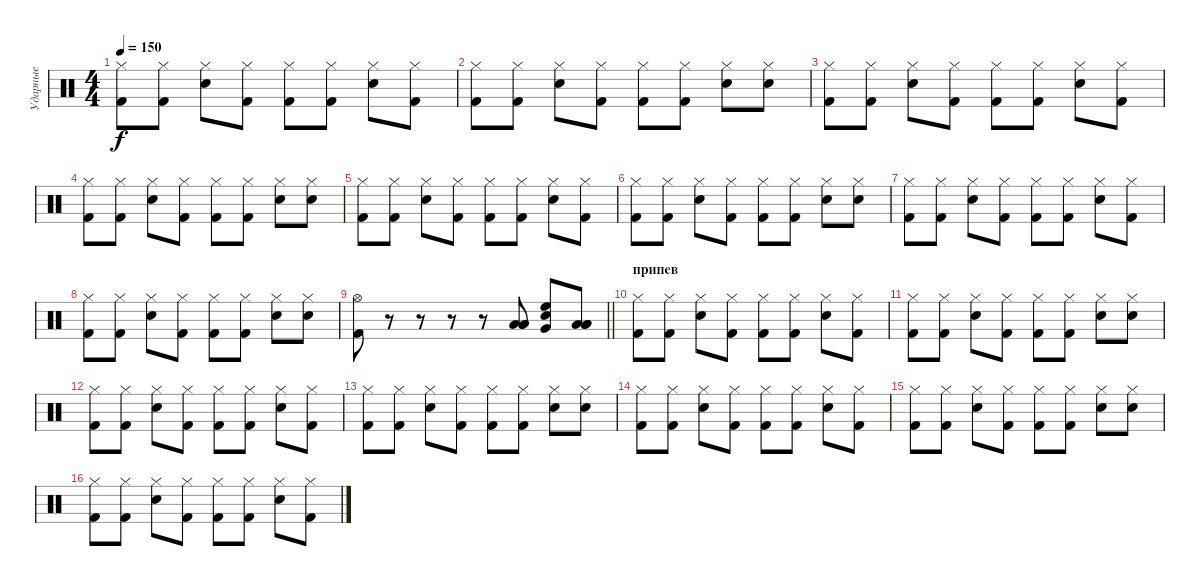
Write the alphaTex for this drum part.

\track ("Ударные" "Ударные") {instrument percussion}
\staff {score}
\articulation defaults
\ts (4 4)
\tempo 150
\clef neutral
\ks c
("Hi-Hat (closed)" "Kick (hit) 2").8{dy f} ("Hi-Hat (closed)" "Kick (hit) 2").8 ("Hi-Hat (closed)" "Snare (hit) 2").8 ("Hi-Hat (closed)" "Kick (hit) 2").8 ("Hi-Hat (closed)" "Kick (hit) 2").8 ("Hi-Hat (closed)" "Kick (hit) 2").8 ("Hi-Hat (closed)" "Snare (hit) 2").8 ("Hi-Hat (closed)" "Kick (hit) 2").8 |
("Hi-Hat (closed)" "Kick (hit) 2").8 ("Hi-Hat (closed)" "Kick (hit) 2").8 ("Hi-Hat (closed)" "Snare (hit) 2").8 ("Hi-Hat (closed)" "Kick (hit) 2").8 ("Hi-Hat (closed)" "Kick (hit) 2").8 ("Hi-Hat (closed)" "Kick (hit) 2").8 ("Hi-Hat (closed)" "Snare (hit) 2").8 ("Hi-Hat (closed)" "Snare (hit) 2").8 |
("Hi-Hat (closed)" "Kick (hit) 2").8 ("Hi-Hat (closed)" "Kick (hit) 2").8 ("Hi-Hat (closed)" "Snare (hit) 2").8 ("Hi-Hat (closed)" "Kick (hit) 2").8 ("Hi-Hat (closed)" "Kick (hit) 2").8 ("Hi-Hat (closed)" "Kick (hit) 2").8 ("Hi-Hat (closed)" "Snare (hit) 2").8 ("Hi-Hat (closed)" "Kick (hit) 2").8 |
("Hi-Hat (closed)" "Kick (hit) 2").8 ("Hi-Hat (closed)" "Kick (hit) 2").8 ("Hi-Hat (closed)" "Snare (hit) 2").8 ("Hi-Hat (closed)" "Kick (hit) 2").8 ("Hi-Hat (closed)" "Kick (hit) 2").8 ("Hi-Hat (closed)" "Kick (hit) 2").8 ("Hi-Hat (closed)" "Snare (hit) 2").8 ("Hi-Hat (closed)" "Snare (hit) 2").8 |
("Hi-Hat (closed)" "Kick (hit) 2").8 ("Hi-Hat (closed)" "Kick (hit) 2").8 ("Hi-Hat (closed)" "Snare (hit) 2").8 ("Hi-Hat (closed)" "Kick (hit) 2").8 ("Hi-Hat (closed)" "Kick (hit) 2").8 ("Hi-Hat (closed)" "Kick (hit) 2").8 ("Hi-Hat (closed)" "Snare (hit) 2").8 ("Hi-Hat (closed)" "Kick (hit) 2").8 |
("Hi-Hat (closed)" "Kick (hit) 2").8 ("Hi-Hat (closed)" "Kick (hit) 2").8 ("Hi-Hat (closed)" "Snare (hit) 2").8 ("Hi-Hat (closed)" "Kick (hit) 2").8 ("Hi-Hat (closed)" "Kick (hit) 2").8 ("Hi-Hat (closed)" "Kick (hit) 2").8 ("Hi-Hat (closed)" "Snare (hit) 2").8 ("Hi-Hat (closed)" "Snare (hit) 2").8 |
("Hi-Hat (closed)" "Kick (hit) 2").8 ("Hi-Hat (closed)" "Kick (hit) 2").8 ("Hi-Hat (closed)" "Snare (hit) 2").8 ("Hi-Hat (closed)" "Kick (hit) 2").8 ("Hi-Hat (closed)" "Kick (hit) 2").8 ("Hi-Hat (closed)" "Kick (hit) 2").8 ("Hi-Hat (closed)" "Snare (hit) 2").8 ("Hi-Hat (closed)" "Kick (hit) 2").8 |
("Hi-Hat (closed)" "Kick (hit) 2").8 ("Hi-Hat (closed)" "Kick (hit) 2").8 ("Hi-Hat (closed)" "Snare (hit) 2").8 ("Hi-Hat (closed)" "Kick (hit) 2").8 ("Hi-Hat (closed)" "Kick (hit) 2").8 ("Hi-Hat (closed)" "Kick (hit) 2").8 ("Hi-Hat (closed)" "Snare (hit) 2").8 ("Hi-Hat (closed)" "Snare (hit) 2").8 |
\barLineRight lightlight
("Hi-Hat (open)" "Kick (hit) 2").8 r.8 r.8 r.8 r.8 ("Low Floor Tom (hit)" "Low Floor Tom (hit)" "Low Floor Tom (hit)").8 ("Very Low Tom (hit)" "High Floor Tom (hit)" "Electric Snare (hit)").8 ("Low Tom (hit)" "Low Tom (hit)" "Low Tom (hit)").8 |
\section ("" "припев")
("Hi-Hat (closed)" "Kick (hit) 2").8 ("Hi-Hat (closed)" "Kick (hit) 2").8 ("Hi-Hat (closed)" "Snare (hit) 2").8 ("Hi-Hat (closed)" "Kick (hit) 2").8 ("Hi-Hat (closed)" "Kick (hit) 2").8 ("Hi-Hat (closed)" "Kick (hit) 2").8 ("Hi-Hat (closed)" "Snare (hit) 2").8 ("Hi-Hat (closed)" "Kick (hit) 2").8 |
("Hi-Hat (closed)" "Kick (hit) 2").8 ("Hi-Hat (closed)" "Kick (hit) 2").8 ("Hi-Hat (closed)" "Snare (hit) 2").8 ("Hi-Hat (closed)" "Kick (hit) 2").8 ("Hi-Hat (closed)" "Kick (hit) 2").8 ("Hi-Hat (closed)" "Kick (hit) 2").8 ("Hi-Hat (closed)" "Snare (hit) 2").8 ("Hi-Hat (closed)" "Snare (hit) 2").8 |
("Hi-Hat (closed)" "Kick (hit) 2").8 ("Hi-Hat (closed)" "Kick (hit) 2").8 ("Hi-Hat (closed)" "Snare (hit) 2").8 ("Hi-Hat (closed)" "Kick (hit) 2").8 ("Hi-Hat (closed)" "Kick (hit) 2").8 ("Hi-Hat (closed)" "Kick (hit) 2").8 ("Hi-Hat (closed)" "Snare (hit) 2").8 ("Hi-Hat (closed)" "Kick (hit) 2").8 |
("Hi-Hat (closed)" "Kick (hit) 2").8 ("Hi-Hat (closed)" "Kick (hit) 2").8 ("Hi-Hat (closed)" "Snare (hit) 2").8 ("Hi-Hat (closed)" "Kick (hit) 2").8 ("Hi-Hat (closed)" "Kick (hit) 2").8 ("Hi-Hat (closed)" "Kick (hit) 2").8 ("Hi-Hat (closed)" "Snare (hit) 2").8 ("Hi-Hat (closed)" "Snare (hit) 2").8 |
("Hi-Hat (closed)" "Kick (hit) 2").8 ("Hi-Hat (closed)" "Kick (hit) 2").8 ("Hi-Hat (closed)" "Snare (hit) 2").8 ("Hi-Hat (closed)" "Kick (hit) 2").8 ("Hi-Hat (closed)" "Kick (hit) 2").8 ("Hi-Hat (closed)" "Kick (hit) 2").8 ("Hi-Hat (closed)" "Snare (hit) 2").8 ("Hi-Hat (closed)" "Kick (hit) 2").8 |
("Hi-Hat (closed)" "Kick (hit) 2").8 ("Hi-Hat (closed)" "Kick (hit) 2").8 ("Hi-Hat (closed)" "Snare (hit) 2").8 ("Hi-Hat (closed)" "Kick (hit) 2").8 ("Hi-Hat (closed)" "Kick (hit) 2").8 ("Hi-Hat (closed)" "Kick (hit) 2").8 ("Hi-Hat (closed)" "Snare (hit) 2").8 ("Hi-Hat (closed)" "Snare (hit) 2").8 |
("Hi-Hat (closed)" "Kick (hit) 2").8 ("Hi-Hat (closed)" "Kick (hit) 2").8 ("Hi-Hat (closed)" "Snare (hit) 2").8 ("Hi-Hat (closed)" "Kick (hit) 2").8 ("Hi-Hat (closed)" "Kick (hit) 2").8 ("Hi-Hat (closed)" "Kick (hit) 2").8 ("Hi-Hat (closed)" "Snare (hit) 2").8 ("Hi-Hat (closed)" "Kick (hit) 2").8
